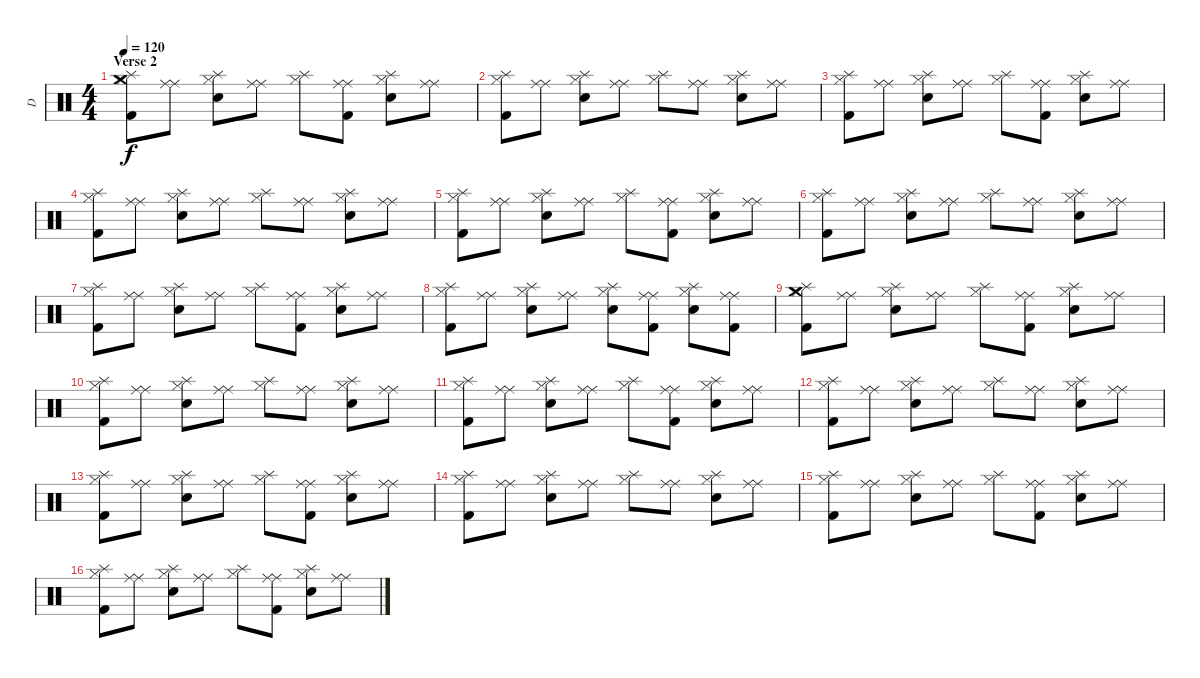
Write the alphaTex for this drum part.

\track ("D" "D") {instrument percussion}
\staff {score}
\articulation defaults
\ts (4 4)
\section ("" "Verse 2")
\tempo 120
\clef neutral
\ks c
("Crash medium (hit)" "Kick (hit) 2" "Splash (hit)" "Hi-Hat (closed)").8{dy f} ("Ride (middle)" "Ride (middle)").8 ("Electric Snare (hit)" "Splash (hit)" "Hi-Hat (closed)").8 ("Ride (middle)" "Ride (middle)").8 ("Splash (hit)" "Hi-Hat (closed)").8 ("Kick (hit) 2" "Ride (middle)" "Ride (middle)").8 ("Electric Snare (hit)" "Splash (hit)" "Hi-Hat (closed)").8 ("Ride (middle)" "Ride (middle)").8 |
("Kick (hit) 2" "Splash (hit)" "Hi-Hat (closed)").8 ("Ride (middle)" "Ride (middle)").8 ("Electric Snare (hit)" "Splash (hit)" "Hi-Hat (closed)").8 ("Ride (middle)" "Ride (middle)").8 ("Splash (hit)" "Hi-Hat (closed)").8 ("Ride (middle)" "Ride (middle)").8 ("Electric Snare (hit)" "Splash (hit)" "Hi-Hat (closed)").8 ("Ride (middle)" "Ride (middle)").8 |
("Kick (hit) 2" "Splash (hit)" "Hi-Hat (closed)").8 ("Ride (middle)" "Ride (middle)").8 ("Electric Snare (hit)" "Splash (hit)" "Hi-Hat (closed)").8 ("Ride (middle)" "Ride (middle)").8 ("Splash (hit)" "Hi-Hat (closed)").8 ("Kick (hit) 2" "Ride (middle)" "Ride (middle)").8 ("Electric Snare (hit)" "Splash (hit)" "Hi-Hat (closed)").8 ("Ride (middle)" "Ride (middle)").8 |
("Kick (hit) 2" "Splash (hit)" "Hi-Hat (closed)").8 ("Ride (middle)" "Ride (middle)").8 ("Electric Snare (hit)" "Splash (hit)" "Hi-Hat (closed)").8 ("Ride (middle)" "Ride (middle)").8 ("Splash (hit)" "Hi-Hat (closed)").8 ("Ride (middle)" "Ride (middle)").8 ("Electric Snare (hit)" "Splash (hit)" "Hi-Hat (closed)").8 ("Ride (middle)" "Ride (middle)").8 |
("Kick (hit) 2" "Splash (hit)" "Hi-Hat (closed)").8 ("Ride (middle)" "Ride (middle)").8 ("Electric Snare (hit)" "Splash (hit)" "Hi-Hat (closed)").8 ("Ride (middle)" "Ride (middle)").8 ("Splash (hit)" "Hi-Hat (closed)").8 ("Kick (hit) 2" "Ride (middle)" "Ride (middle)").8 ("Electric Snare (hit)" "Splash (hit)" "Hi-Hat (closed)").8 ("Ride (middle)" "Ride (middle)").8 |
("Kick (hit) 2" "Splash (hit)" "Hi-Hat (closed)").8 ("Ride (middle)" "Ride (middle)").8 ("Electric Snare (hit)" "Splash (hit)" "Hi-Hat (closed)").8 ("Ride (middle)" "Ride (middle)").8 ("Splash (hit)" "Hi-Hat (closed)").8 ("Ride (middle)" "Ride (middle)").8 ("Electric Snare (hit)" "Splash (hit)" "Hi-Hat (closed)").8 ("Ride (middle)" "Ride (middle)").8 |
("Kick (hit) 2" "Splash (hit)" "Hi-Hat (closed)").8 ("Ride (middle)" "Ride (middle)").8 ("Electric Snare (hit)" "Splash (hit)" "Hi-Hat (closed)").8 ("Ride (middle)" "Ride (middle)").8 ("Splash (hit)" "Hi-Hat (closed)").8 ("Kick (hit) 2" "Ride (middle)" "Ride (middle)").8 ("Electric Snare (hit)" "Splash (hit)" "Hi-Hat (closed)").8 ("Ride (middle)" "Ride (middle)").8 |
("Kick (hit) 2" "Splash (hit)" "Hi-Hat (closed)").8 ("Ride (middle)" "Ride (middle)").8 ("Electric Snare (hit)" "Splash (hit)" "Hi-Hat (closed)").8 ("Ride (middle)" "Ride (middle)").8 ("Electric Snare (hit)" "Splash (hit)" "Hi-Hat (closed)").8 ("Kick (hit) 2" "Ride (middle)" "Ride (middle)").8 ("Electric Snare (hit)" "Splash (hit)" "Hi-Hat (closed)").8 ("Kick (hit) 2" "Ride (middle)" "Ride (middle)").8 |
("Crash medium (hit)" "Kick (hit) 2" "Splash (hit)" "Hi-Hat (closed)").8 ("Ride (middle)" "Ride (middle)").8 ("Electric Snare (hit)" "Splash (hit)" "Hi-Hat (closed)").8 ("Ride (middle)" "Ride (middle)").8 ("Splash (hit)" "Hi-Hat (closed)").8 ("Kick (hit) 2" "Ride (middle)" "Ride (middle)").8 ("Electric Snare (hit)" "Splash (hit)" "Hi-Hat (closed)").8 ("Ride (middle)" "Ride (middle)").8 |
("Kick (hit) 2" "Splash (hit)" "Hi-Hat (closed)").8 ("Ride (middle)" "Ride (middle)").8 ("Electric Snare (hit)" "Splash (hit)" "Hi-Hat (closed)").8 ("Ride (middle)" "Ride (middle)").8 ("Splash (hit)" "Hi-Hat (closed)").8 ("Ride (middle)" "Ride (middle)").8 ("Electric Snare (hit)" "Splash (hit)" "Hi-Hat (closed)").8 ("Ride (middle)" "Ride (middle)").8 |
("Kick (hit) 2" "Splash (hit)" "Hi-Hat (closed)").8 ("Ride (middle)" "Ride (middle)").8 ("Electric Snare (hit)" "Splash (hit)" "Hi-Hat (closed)").8 ("Ride (middle)" "Ride (middle)").8 ("Splash (hit)" "Hi-Hat (closed)").8 ("Kick (hit) 2" "Ride (middle)" "Ride (middle)").8 ("Electric Snare (hit)" "Splash (hit)" "Hi-Hat (closed)").8 ("Ride (middle)" "Ride (middle)").8 |
("Kick (hit) 2" "Splash (hit)" "Hi-Hat (closed)").8 ("Ride (middle)" "Ride (middle)").8 ("Electric Snare (hit)" "Splash (hit)" "Hi-Hat (closed)").8 ("Ride (middle)" "Ride (middle)").8 ("Splash (hit)" "Hi-Hat (closed)").8 ("Ride (middle)" "Ride (middle)").8 ("Electric Snare (hit)" "Splash (hit)" "Hi-Hat (closed)").8 ("Ride (middle)" "Ride (middle)").8 |
("Kick (hit) 2" "Splash (hit)" "Hi-Hat (closed)").8 ("Ride (middle)" "Ride (middle)").8 ("Electric Snare (hit)" "Splash (hit)" "Hi-Hat (closed)").8 ("Ride (middle)" "Ride (middle)").8 ("Splash (hit)" "Hi-Hat (closed)").8 ("Kick (hit) 2" "Ride (middle)" "Ride (middle)").8 ("Electric Snare (hit)" "Splash (hit)" "Hi-Hat (closed)").8 ("Ride (middle)" "Ride (middle)").8 |
("Kick (hit) 2" "Splash (hit)" "Hi-Hat (closed)").8 ("Ride (middle)" "Ride (middle)").8 ("Electric Snare (hit)" "Splash (hit)" "Hi-Hat (closed)").8 ("Ride (middle)" "Ride (middle)").8 ("Splash (hit)" "Hi-Hat (closed)").8 ("Ride (middle)" "Ride (middle)").8 ("Electric Snare (hit)" "Splash (hit)" "Hi-Hat (closed)").8 ("Ride (middle)" "Ride (middle)").8 |
("Kick (hit) 2" "Splash (hit)" "Hi-Hat (closed)").8 ("Ride (middle)" "Ride (middle)").8 ("Electric Snare (hit)" "Splash (hit)" "Hi-Hat (closed)").8 ("Ride (middle)" "Ride (middle)").8 ("Splash (hit)" "Hi-Hat (closed)").8 ("Kick (hit) 2" "Ride (middle)" "Ride (middle)").8 ("Electric Snare (hit)" "Splash (hit)" "Hi-Hat (closed)").8 ("Ride (middle)" "Ride (middle)").8 |
("Kick (hit) 2" "Splash (hit)" "Hi-Hat (closed)").8 ("Ride (middle)" "Ride (middle)").8 ("Electric Snare (hit)" "Splash (hit)" "Hi-Hat (closed)").8 ("Ride (middle)" "Ride (middle)").8 ("Splash (hit)" "Hi-Hat (closed)").8 ("Kick (hit) 2" "Ride (middle)" "Ride (middle)").8 ("Electric Snare (hit)" "Splash (hit)" "Hi-Hat (closed)").8 ("Ride (middle)" "Ride (middle)").8
